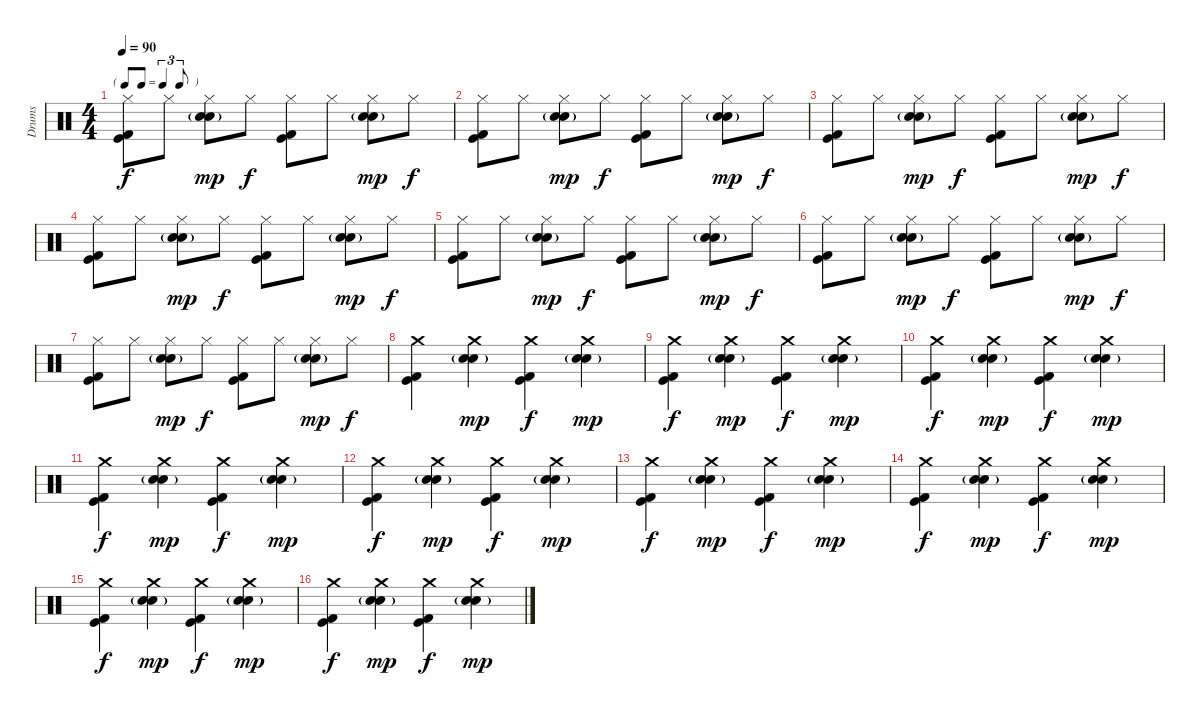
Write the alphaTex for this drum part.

\track ("Drums" "Drums") {instrument percussion}
\staff {score}
\articulation defaults
\ts (4 4)
\tf triplet8th
\tempo 90
\clef neutral
\ks c
("Hi-Hat (closed)" "Kick (hit)" "Kick (hit) 2").8{dy f} "Hi-Hat (closed)".8 ("Hi-Hat (closed)" "Snare (hit) 2" "Hand Clap (hit)"{g}).8{dy mp} "Hi-Hat (closed)".8{dy f} ("Hi-Hat (closed)" "Kick (hit)" "Kick (hit) 2").8 "Hi-Hat (closed)".8 ("Hi-Hat (closed)" "Snare (hit) 2" "Hand Clap (hit)"{g}).8{dy mp} "Hi-Hat (closed)".8{dy f} |
("Hi-Hat (closed)" "Kick (hit)" "Kick (hit) 2").8 "Hi-Hat (closed)".8 ("Hi-Hat (closed)" "Snare (hit) 2" "Hand Clap (hit)"{g}).8{dy mp} "Hi-Hat (closed)".8{dy f} ("Hi-Hat (closed)" "Kick (hit)" "Kick (hit) 2").8 "Hi-Hat (closed)".8 ("Hi-Hat (closed)" "Snare (hit) 2" "Hand Clap (hit)"{g}).8{dy mp} "Hi-Hat (closed)".8{dy f} |
("Hi-Hat (closed)" "Kick (hit)" "Kick (hit) 2").8 "Hi-Hat (closed)".8 ("Hi-Hat (closed)" "Snare (hit) 2" "Hand Clap (hit)"{g}).8{dy mp} "Hi-Hat (closed)".8{dy f} ("Hi-Hat (closed)" "Kick (hit)" "Kick (hit) 2").8 "Hi-Hat (closed)".8 ("Hi-Hat (closed)" "Snare (hit) 2" "Hand Clap (hit)"{g}).8{dy mp} "Hi-Hat (closed)".8{dy f} |
("Hi-Hat (closed)" "Kick (hit)" "Kick (hit) 2").8 "Hi-Hat (closed)".8 ("Hi-Hat (closed)" "Snare (hit) 2" "Hand Clap (hit)"{g}).8{dy mp} "Hi-Hat (closed)".8{dy f} ("Hi-Hat (closed)" "Kick (hit)" "Kick (hit) 2").8 "Hi-Hat (closed)".8 ("Hi-Hat (closed)" "Snare (hit) 2" "Hand Clap (hit)"{g}).8{dy mp} "Hi-Hat (closed)".8{dy f} |
("Hi-Hat (closed)" "Kick (hit)" "Kick (hit) 2").8 "Hi-Hat (closed)".8 ("Hi-Hat (closed)" "Snare (hit) 2" "Hand Clap (hit)"{g}).8{dy mp} "Hi-Hat (closed)".8{dy f} ("Hi-Hat (closed)" "Kick (hit)" "Kick (hit) 2").8 "Hi-Hat (closed)".8 ("Hi-Hat (closed)" "Snare (hit) 2" "Hand Clap (hit)"{g}).8{dy mp} "Hi-Hat (closed)".8{dy f} |
("Hi-Hat (closed)" "Kick (hit)" "Kick (hit) 2").8 "Hi-Hat (closed)".8 ("Hi-Hat (closed)" "Snare (hit) 2" "Hand Clap (hit)"{g}).8{dy mp} "Hi-Hat (closed)".8{dy f} ("Hi-Hat (closed)" "Kick (hit)" "Kick (hit) 2").8 "Hi-Hat (closed)".8 ("Hi-Hat (closed)" "Snare (hit) 2" "Hand Clap (hit)"{g}).8{dy mp} "Hi-Hat (closed)".8{dy f} |
("Hi-Hat (closed)" "Kick (hit)" "Kick (hit) 2").8 "Hi-Hat (closed)".8 ("Hi-Hat (closed)" "Snare (hit) 2" "Hand Clap (hit)"{g}).8{dy mp} "Hi-Hat (closed)".8{dy f} ("Hi-Hat (closed)" "Kick (hit)" "Kick (hit) 2").8 "Hi-Hat (closed)".8 ("Hi-Hat (closed)" "Snare (hit) 2" "Hand Clap (hit)"{g}).8{dy mp} "Hi-Hat (closed)".8{dy f} |
("Crash medium (hit)" "Kick (hit)" "Kick (hit) 2").4 ("Crash medium (hit)" "Snare (hit) 2" "Hand Clap (hit)"{g}).4{dy mp} ("Crash medium (hit)" "Kick (hit)" "Kick (hit) 2").4{dy f} ("Crash medium (hit)" "Snare (hit) 2" "Hand Clap (hit)"{g}).4{dy mp} |
("Crash medium (hit)" "Kick (hit)" "Kick (hit) 2").4{dy f} ("Crash medium (hit)" "Snare (hit) 2" "Hand Clap (hit)"{g}).4{dy mp} ("Crash medium (hit)" "Kick (hit)" "Kick (hit) 2").4{dy f} ("Crash medium (hit)" "Snare (hit) 2" "Hand Clap (hit)"{g}).4{dy mp} |
("Crash medium (hit)" "Kick (hit)" "Kick (hit) 2").4{dy f} ("Crash medium (hit)" "Snare (hit) 2" "Hand Clap (hit)"{g}).4{dy mp} ("Crash medium (hit)" "Kick (hit)" "Kick (hit) 2").4{dy f} ("Crash medium (hit)" "Snare (hit) 2" "Hand Clap (hit)"{g}).4{dy mp} |
("Crash medium (hit)" "Kick (hit)" "Kick (hit) 2").4{dy f} ("Crash medium (hit)" "Snare (hit) 2" "Hand Clap (hit)"{g}).4{dy mp} ("Crash medium (hit)" "Kick (hit)" "Kick (hit) 2").4{dy f} ("Crash medium (hit)" "Snare (hit) 2" "Hand Clap (hit)"{g}).4{dy mp} |
("Crash medium (hit)" "Kick (hit)" "Kick (hit) 2").4{dy f} ("Crash medium (hit)" "Snare (hit) 2" "Hand Clap (hit)"{g}).4{dy mp} ("Crash medium (hit)" "Kick (hit)" "Kick (hit) 2").4{dy f} ("Crash medium (hit)" "Snare (hit) 2" "Hand Clap (hit)"{g}).4{dy mp} |
("Crash medium (hit)" "Kick (hit)" "Kick (hit) 2").4{dy f} ("Crash medium (hit)" "Snare (hit) 2" "Hand Clap (hit)"{g}).4{dy mp} ("Crash medium (hit)" "Kick (hit)" "Kick (hit) 2").4{dy f} ("Crash medium (hit)" "Snare (hit) 2" "Hand Clap (hit)"{g}).4{dy mp} |
("Crash medium (hit)" "Kick (hit)" "Kick (hit) 2").4{dy f} ("Crash medium (hit)" "Snare (hit) 2" "Hand Clap (hit)"{g}).4{dy mp} ("Crash medium (hit)" "Kick (hit)" "Kick (hit) 2").4{dy f} ("Crash medium (hit)" "Snare (hit) 2" "Hand Clap (hit)"{g}).4{dy mp} |
("Crash medium (hit)" "Kick (hit)" "Kick (hit) 2").4{dy f} ("Crash medium (hit)" "Snare (hit) 2" "Hand Clap (hit)"{g}).4{dy mp} ("Crash medium (hit)" "Kick (hit)" "Kick (hit) 2").4{dy f} ("Crash medium (hit)" "Snare (hit) 2" "Hand Clap (hit)"{g}).4{dy mp} |
("Crash medium (hit)" "Kick (hit)" "Kick (hit) 2").4{dy f} ("Crash medium (hit)" "Snare (hit) 2" "Hand Clap (hit)"{g}).4{dy mp} ("Crash medium (hit)" "Kick (hit)" "Kick (hit) 2").4{dy f} ("Crash medium (hit)" "Snare (hit) 2" "Hand Clap (hit)"{g}).4{dy mp}
